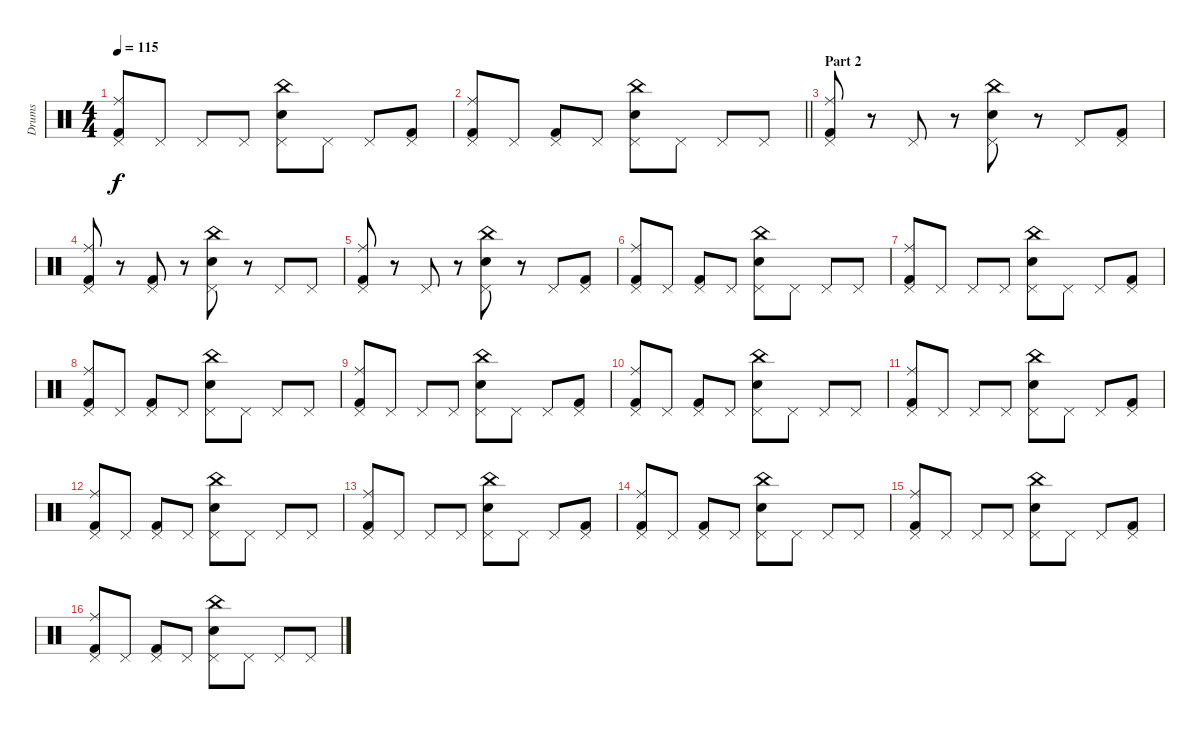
\track ("Drums" "Drums") {instrument percussion}
\staff {score}
\articulation defaults
\ts (4 4)
\tempo 115
\clef neutral
\ks c
("Pedal Hi-Hat (hit)" "Ride (middle)" "Kick (hit) 2").8{dy f} "Pedal Hi-Hat (hit)".8 "Pedal Hi-Hat (hit)".8 "Pedal Hi-Hat (hit)".8 ("Pedal Hi-Hat (hit)" "Electric Snare (hit)" "China (hit)").8 "Pedal Hi-Hat (hit)".8 "Pedal Hi-Hat (hit)".8 ("Pedal Hi-Hat (hit)" "Kick (hit) 2").8 |
\barLineRight lightlight
("Pedal Hi-Hat (hit)" "Ride (middle)" "Kick (hit) 2").8 "Pedal Hi-Hat (hit)".8 ("Pedal Hi-Hat (hit)" "Kick (hit) 2").8 "Pedal Hi-Hat (hit)".8 ("Pedal Hi-Hat (hit)" "Electric Snare (hit)" "China (hit)").8 "Pedal Hi-Hat (hit)".8 "Pedal Hi-Hat (hit)".8 "Pedal Hi-Hat (hit)".8 |
\section ("" "Part 2")
("Pedal Hi-Hat (hit)" "Ride (middle)" "Kick (hit) 2").8 r.8 "Pedal Hi-Hat (hit)".8 r.8 ("Pedal Hi-Hat (hit)" "Electric Snare (hit)" "China (hit)").8 r.8 "Pedal Hi-Hat (hit)".8 ("Pedal Hi-Hat (hit)" "Kick (hit) 2").8 |
("Pedal Hi-Hat (hit)" "Ride (middle)" "Kick (hit) 2").8 r.8 ("Pedal Hi-Hat (hit)" "Kick (hit) 2").8 r.8 ("Pedal Hi-Hat (hit)" "Electric Snare (hit)" "China (hit)").8 r.8 "Pedal Hi-Hat (hit)".8 "Pedal Hi-Hat (hit)".8 |
("Pedal Hi-Hat (hit)" "Ride (middle)" "Kick (hit) 2").8 r.8 "Pedal Hi-Hat (hit)".8 r.8 ("Pedal Hi-Hat (hit)" "Electric Snare (hit)" "China (hit)").8 r.8 "Pedal Hi-Hat (hit)".8 ("Pedal Hi-Hat (hit)" "Kick (hit) 2").8 |
("Pedal Hi-Hat (hit)" "Ride (middle)" "Kick (hit) 2").8 "Pedal Hi-Hat (hit)".8 ("Pedal Hi-Hat (hit)" "Kick (hit) 2").8 "Pedal Hi-Hat (hit)".8 ("Pedal Hi-Hat (hit)" "Electric Snare (hit)" "China (hit)").8 "Pedal Hi-Hat (hit)".8 "Pedal Hi-Hat (hit)".8 "Pedal Hi-Hat (hit)".8 |
("Pedal Hi-Hat (hit)" "Ride (middle)" "Kick (hit) 2").8 "Pedal Hi-Hat (hit)".8 "Pedal Hi-Hat (hit)".8 "Pedal Hi-Hat (hit)".8 ("Pedal Hi-Hat (hit)" "Electric Snare (hit)" "China (hit)").8 "Pedal Hi-Hat (hit)".8 "Pedal Hi-Hat (hit)".8 ("Pedal Hi-Hat (hit)" "Kick (hit) 2").8 |
("Pedal Hi-Hat (hit)" "Ride (middle)" "Kick (hit) 2").8 "Pedal Hi-Hat (hit)".8 ("Pedal Hi-Hat (hit)" "Kick (hit) 2").8 "Pedal Hi-Hat (hit)".8 ("Pedal Hi-Hat (hit)" "Electric Snare (hit)" "China (hit)").8 "Pedal Hi-Hat (hit)".8 "Pedal Hi-Hat (hit)".8 "Pedal Hi-Hat (hit)".8 |
("Pedal Hi-Hat (hit)" "Ride (middle)" "Kick (hit) 2").8 "Pedal Hi-Hat (hit)".8 "Pedal Hi-Hat (hit)".8 "Pedal Hi-Hat (hit)".8 ("Pedal Hi-Hat (hit)" "Electric Snare (hit)" "China (hit)").8 "Pedal Hi-Hat (hit)".8 "Pedal Hi-Hat (hit)".8 ("Pedal Hi-Hat (hit)" "Kick (hit) 2").8 |
("Pedal Hi-Hat (hit)" "Ride (middle)" "Kick (hit) 2").8 "Pedal Hi-Hat (hit)".8 ("Pedal Hi-Hat (hit)" "Kick (hit) 2").8 "Pedal Hi-Hat (hit)".8 ("Pedal Hi-Hat (hit)" "Electric Snare (hit)" "China (hit)").8 "Pedal Hi-Hat (hit)".8 "Pedal Hi-Hat (hit)".8 "Pedal Hi-Hat (hit)".8 |
("Pedal Hi-Hat (hit)" "Ride (middle)" "Kick (hit) 2").8 "Pedal Hi-Hat (hit)".8 "Pedal Hi-Hat (hit)".8 "Pedal Hi-Hat (hit)".8 ("Pedal Hi-Hat (hit)" "Electric Snare (hit)" "China (hit)").8 "Pedal Hi-Hat (hit)".8 "Pedal Hi-Hat (hit)".8 ("Pedal Hi-Hat (hit)" "Kick (hit) 2").8 |
("Pedal Hi-Hat (hit)" "Ride (middle)" "Kick (hit) 2").8 "Pedal Hi-Hat (hit)".8 ("Pedal Hi-Hat (hit)" "Kick (hit) 2").8 "Pedal Hi-Hat (hit)".8 ("Pedal Hi-Hat (hit)" "Electric Snare (hit)" "China (hit)").8 "Pedal Hi-Hat (hit)".8 "Pedal Hi-Hat (hit)".8 "Pedal Hi-Hat (hit)".8 |
("Pedal Hi-Hat (hit)" "Ride (middle)" "Kick (hit) 2").8 "Pedal Hi-Hat (hit)".8 "Pedal Hi-Hat (hit)".8 "Pedal Hi-Hat (hit)".8 ("Pedal Hi-Hat (hit)" "Electric Snare (hit)" "China (hit)").8 "Pedal Hi-Hat (hit)".8 "Pedal Hi-Hat (hit)".8 ("Pedal Hi-Hat (hit)" "Kick (hit) 2").8 |
("Pedal Hi-Hat (hit)" "Ride (middle)" "Kick (hit) 2").8 "Pedal Hi-Hat (hit)".8 ("Pedal Hi-Hat (hit)" "Kick (hit) 2").8 "Pedal Hi-Hat (hit)".8 ("Pedal Hi-Hat (hit)" "Electric Snare (hit)" "China (hit)").8 "Pedal Hi-Hat (hit)".8 "Pedal Hi-Hat (hit)".8 "Pedal Hi-Hat (hit)".8 |
("Pedal Hi-Hat (hit)" "Ride (middle)" "Kick (hit) 2").8 "Pedal Hi-Hat (hit)".8 "Pedal Hi-Hat (hit)".8 "Pedal Hi-Hat (hit)".8 ("Pedal Hi-Hat (hit)" "Electric Snare (hit)" "China (hit)").8 "Pedal Hi-Hat (hit)".8 "Pedal Hi-Hat (hit)".8 ("Pedal Hi-Hat (hit)" "Kick (hit) 2").8 |
("Pedal Hi-Hat (hit)" "Ride (middle)" "Kick (hit) 2").8 "Pedal Hi-Hat (hit)".8 ("Pedal Hi-Hat (hit)" "Kick (hit) 2").8 "Pedal Hi-Hat (hit)".8 ("Pedal Hi-Hat (hit)" "Electric Snare (hit)" "China (hit)").8 "Pedal Hi-Hat (hit)".8 "Pedal Hi-Hat (hit)".8 "Pedal Hi-Hat (hit)".8
